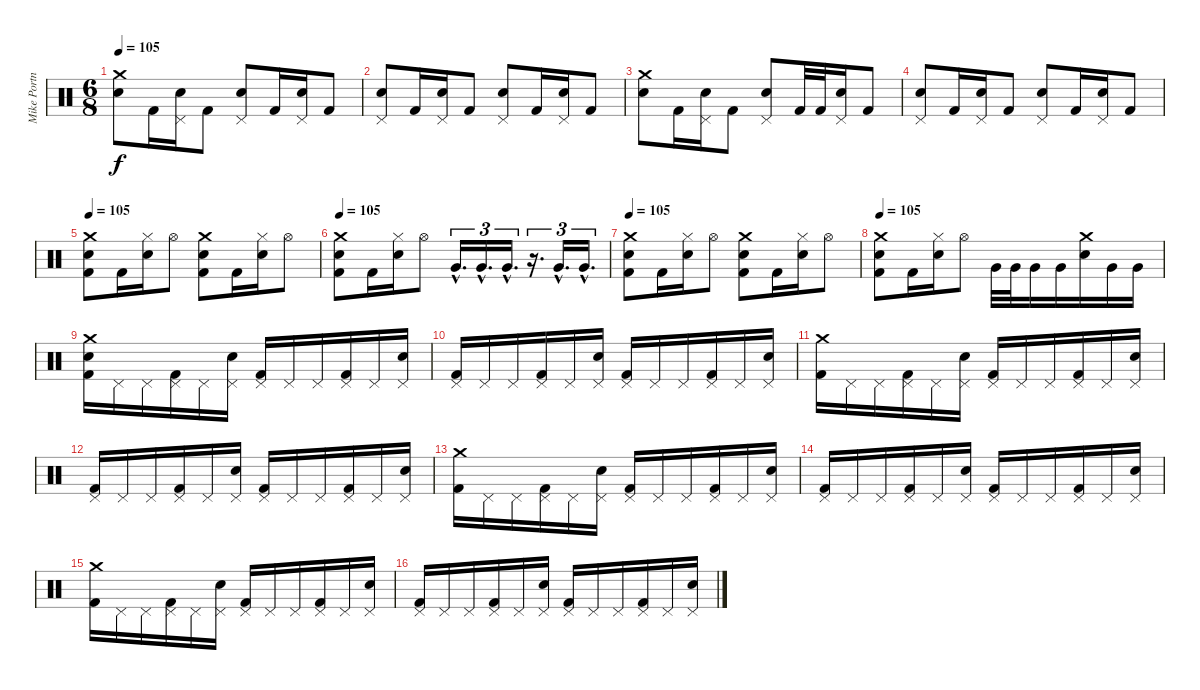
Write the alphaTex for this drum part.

\track ("Mike Portnoy" "Mike Portn") {instrument percussion}
\staff {score}
\articulation defaults
\ts (6 8)
\tempo 105
\clef neutral
\ks c
("Crash medium (hit)" "Electric Snare (hit)").8{dy f} "Kick (hit) 2".16 ("Pedal Hi-Hat (hit)" "Electric Snare (hit)").16 "Kick (hit) 2".8 ("Pedal Hi-Hat (hit)" "Electric Snare (hit)").8 "Kick (hit) 2".16 ("Pedal Hi-Hat (hit)" "Electric Snare (hit)").16 "Kick (hit) 2".8 |
("Pedal Hi-Hat (hit)" "Electric Snare (hit)").8 "Kick (hit) 2".16 ("Pedal Hi-Hat (hit)" "Electric Snare (hit)").16 "Kick (hit) 2".8 ("Pedal Hi-Hat (hit)" "Electric Snare (hit)").8 "Kick (hit) 2".16 ("Pedal Hi-Hat (hit)" "Electric Snare (hit)").16 "Kick (hit) 2".8 |
("Crash medium (hit)" "Electric Snare (hit)").8 "Kick (hit) 2".16 ("Pedal Hi-Hat (hit)" "Electric Snare (hit)").16 "Kick (hit) 2".8 ("Pedal Hi-Hat (hit)" "Electric Snare (hit)").8 "Kick (hit) 2".32 "Kick (hit) 2".32 ("Pedal Hi-Hat (hit)" "Electric Snare (hit)").16 "Kick (hit) 2".8 |
("Pedal Hi-Hat (hit)" "Electric Snare (hit)").8 "Kick (hit) 2".16 ("Pedal Hi-Hat (hit)" "Electric Snare (hit)").16 "Kick (hit) 2".8 ("Pedal Hi-Hat (hit)" "Electric Snare (hit)").8 "Kick (hit) 2".16 ("Pedal Hi-Hat (hit)" "Electric Snare (hit)").16 "Kick (hit) 2".8 |
\tempo 105
("Crash medium (hit)" "Electric Snare (hit)" "Kick (hit) 2").8 "Kick (hit) 2".16 ("Hi-Hat (closed)" "Electric Snare (hit)").16 "Hi-Hat (open)".8 ("Crash medium (hit)" "Electric Snare (hit)" "Kick (hit) 2").8 "Kick (hit) 2".16 ("Hi-Hat (closed)" "Electric Snare (hit)").16 "Hi-Hat (open)".8 |
\tempo 105
("Crash medium (hit)" "Electric Snare (hit)" "Kick (hit) 2").8 "Kick (hit) 2".16 ("Hi-Hat (closed)" "Electric Snare (hit)").16 "Hi-Hat (open)".8 "Very Low Tom (hit)"{hac}.16{d tu (3 2)} "Very Low Tom (hit)"{hac}.16{d tu (3 2)} "Very Low Tom (hit)"{hac}.16{d tu (3 2)} r.16{d tu (3 2)} "Very Low Tom (hit)"{hac}.16{d tu (3 2)} "Very Low Tom (hit)"{hac}.16{d tu (3 2)} |
\tempo 105
("Crash medium (hit)" "Electric Snare (hit)" "Kick (hit) 2").8 "Kick (hit) 2".16 ("Hi-Hat (closed)" "Electric Snare (hit)").16 "Hi-Hat (open)".8 ("Crash medium (hit)" "Electric Snare (hit)" "Kick (hit) 2").8 "Kick (hit) 2".16 ("Hi-Hat (closed)" "Electric Snare (hit)").16 "Hi-Hat (open)".8 |
\tempo 105
("Crash medium (hit)" "Electric Snare (hit)" "Kick (hit) 2").8 "Kick (hit) 2".16 ("Hi-Hat (closed)" "Electric Snare (hit)").16 "Hi-Hat (open)".8 "Very Low Tom (hit)".32 "Very Low Tom (hit)".32 "Very Low Tom (hit)".16 "Very Low Tom (hit)".16 ("Crash medium (hit)" "Electric Snare (hit)").16 "Very Low Tom (hit)".16 "Very Low Tom (hit)".16 |
("Crash medium (hit)" "Electric Snare (hit)" "Kick (hit) 2").16 "Pedal Hi-Hat (hit)".16 "Pedal Hi-Hat (hit)".16 ("Pedal Hi-Hat (hit)" "Kick (hit) 2").16 "Pedal Hi-Hat (hit)".16 ("Pedal Hi-Hat (hit)" "Electric Snare (hit)").16 ("Pedal Hi-Hat (hit)" "Kick (hit) 2").16 "Pedal Hi-Hat (hit)".16 "Pedal Hi-Hat (hit)".16 ("Pedal Hi-Hat (hit)" "Kick (hit) 2").16 "Pedal Hi-Hat (hit)".16 ("Pedal Hi-Hat (hit)" "Electric Snare (hit)").16 |
("Pedal Hi-Hat (hit)" "Kick (hit) 2").16 "Pedal Hi-Hat (hit)".16 "Pedal Hi-Hat (hit)".16 ("Pedal Hi-Hat (hit)" "Kick (hit) 2").16 "Pedal Hi-Hat (hit)".16 ("Pedal Hi-Hat (hit)" "Electric Snare (hit)").16 ("Pedal Hi-Hat (hit)" "Kick (hit) 2").16 "Pedal Hi-Hat (hit)".16 "Pedal Hi-Hat (hit)".16 ("Pedal Hi-Hat (hit)" "Kick (hit) 2").16 "Pedal Hi-Hat (hit)".16 ("Pedal Hi-Hat (hit)" "Electric Snare (hit)").16 |
("Crash medium (hit)" "Kick (hit) 2").16 "Pedal Hi-Hat (hit)".16 "Pedal Hi-Hat (hit)".16 ("Pedal Hi-Hat (hit)" "Kick (hit) 2").16 "Pedal Hi-Hat (hit)".16 ("Pedal Hi-Hat (hit)" "Electric Snare (hit)").16 ("Pedal Hi-Hat (hit)" "Kick (hit) 2").16 "Pedal Hi-Hat (hit)".16 "Pedal Hi-Hat (hit)".16 ("Pedal Hi-Hat (hit)" "Kick (hit) 2").16 "Pedal Hi-Hat (hit)".16 ("Pedal Hi-Hat (hit)" "Electric Snare (hit)").16 |
("Pedal Hi-Hat (hit)" "Kick (hit) 2").16 "Pedal Hi-Hat (hit)".16 "Pedal Hi-Hat (hit)".16 ("Pedal Hi-Hat (hit)" "Kick (hit) 2").16 "Pedal Hi-Hat (hit)".16 ("Pedal Hi-Hat (hit)" "Electric Snare (hit)").16 ("Pedal Hi-Hat (hit)" "Kick (hit) 2").16 "Pedal Hi-Hat (hit)".16 "Pedal Hi-Hat (hit)".16 ("Pedal Hi-Hat (hit)" "Kick (hit) 2").16 "Pedal Hi-Hat (hit)".16 ("Pedal Hi-Hat (hit)" "Electric Snare (hit)").16 |
("Crash medium (hit)" "Kick (hit) 2").16 "Pedal Hi-Hat (hit)".16 "Pedal Hi-Hat (hit)".16 ("Pedal Hi-Hat (hit)" "Kick (hit) 2").16 "Pedal Hi-Hat (hit)".16 ("Pedal Hi-Hat (hit)" "Electric Snare (hit)").16 ("Pedal Hi-Hat (hit)" "Kick (hit) 2").16 "Pedal Hi-Hat (hit)".16 "Pedal Hi-Hat (hit)".16 ("Pedal Hi-Hat (hit)" "Kick (hit) 2").16 "Pedal Hi-Hat (hit)".16 ("Pedal Hi-Hat (hit)" "Electric Snare (hit)").16 |
("Pedal Hi-Hat (hit)" "Kick (hit) 2").16 "Pedal Hi-Hat (hit)".16 "Pedal Hi-Hat (hit)".16 ("Pedal Hi-Hat (hit)" "Kick (hit) 2").16 "Pedal Hi-Hat (hit)".16 ("Pedal Hi-Hat (hit)" "Electric Snare (hit)").16 ("Pedal Hi-Hat (hit)" "Kick (hit) 2").16 "Pedal Hi-Hat (hit)".16 "Pedal Hi-Hat (hit)".16 ("Pedal Hi-Hat (hit)" "Kick (hit) 2").16 "Pedal Hi-Hat (hit)".16 ("Pedal Hi-Hat (hit)" "Electric Snare (hit)").16 |
("Crash medium (hit)" "Kick (hit) 2").16 "Pedal Hi-Hat (hit)".16 "Pedal Hi-Hat (hit)".16 ("Pedal Hi-Hat (hit)" "Kick (hit) 2").16 "Pedal Hi-Hat (hit)".16 ("Pedal Hi-Hat (hit)" "Electric Snare (hit)").16 ("Pedal Hi-Hat (hit)" "Kick (hit) 2").16 "Pedal Hi-Hat (hit)".16 "Pedal Hi-Hat (hit)".16 ("Pedal Hi-Hat (hit)" "Kick (hit) 2").16 "Pedal Hi-Hat (hit)".16 ("Pedal Hi-Hat (hit)" "Electric Snare (hit)").16 |
("Pedal Hi-Hat (hit)" "Kick (hit) 2").16 "Pedal Hi-Hat (hit)".16 "Pedal Hi-Hat (hit)".16 ("Pedal Hi-Hat (hit)" "Kick (hit) 2").16 "Pedal Hi-Hat (hit)".16 ("Pedal Hi-Hat (hit)" "Electric Snare (hit)").16 ("Pedal Hi-Hat (hit)" "Kick (hit) 2").16 "Pedal Hi-Hat (hit)".16 "Pedal Hi-Hat (hit)".16 ("Pedal Hi-Hat (hit)" "Kick (hit) 2").16 "Pedal Hi-Hat (hit)".16 ("Pedal Hi-Hat (hit)" "Electric Snare (hit)").16
